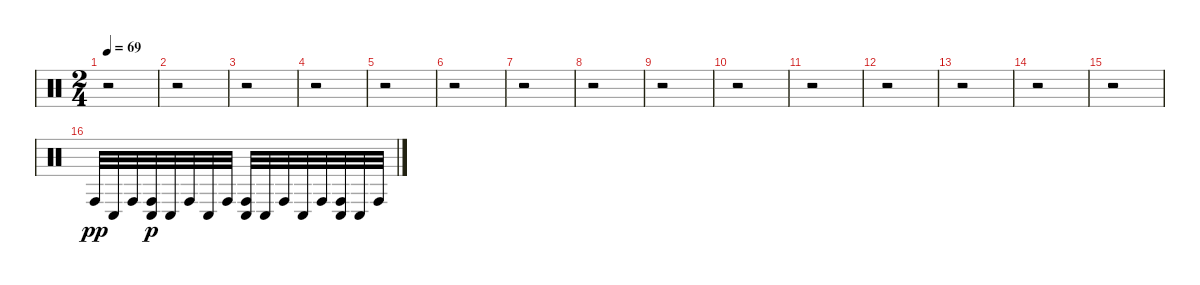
\track "" {instrument percussion}
\staff {score}
\articulation defaults
\ts (2 4)
\tempo 69
\clef neutral
\ks c
r.2{dy mp} |
r.2 |
r.2 |
r.2 |
r.2 |
r.2 |
r.2 |
r.2 |
r.2 |
r.2 |
r.2 |
r.2 |
r.2 |
r.2 |
r.2 |
"Conga high (hit)".32{dy pp} "Conga low (hit)".32 "Conga high (hit)".32 ("Conga low (hit)" "Conga high (hit)").32{dy p} "Conga low (hit)".32 "Conga high (hit)".32 "Conga low (hit)".32 "Conga high (hit)".32 ("Conga low (hit)" "Conga high (hit)").32 "Conga low (hit)".32 "Conga high (hit)".32 "Conga low (hit)".32 "Conga high (hit)".32 ("Conga low (hit)" "Conga high (hit)").32 "Conga low (hit)".32 "Conga high (hit)".32
